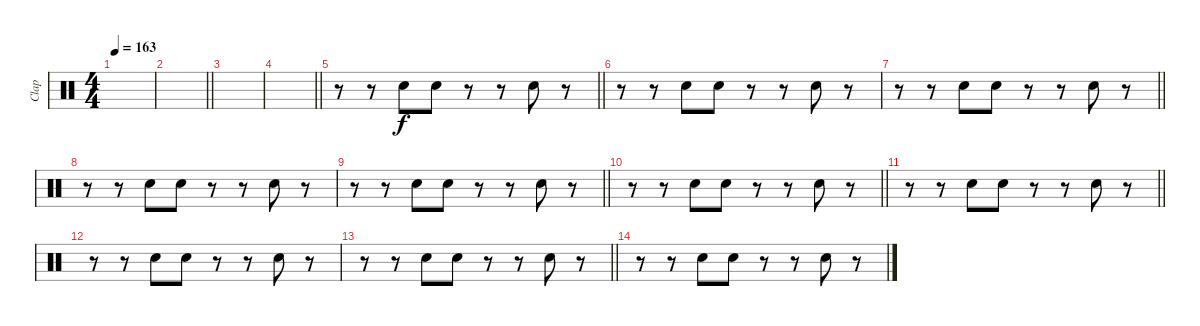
\track ("Clap" "Clap") {instrument percussion}
\staff {score}
\articulation defaults
\ts (4 4)
\tempo 163
\clef neutral
\ks c
|
\barLineRight lightlight
|
\section ("" "")
|
\barLineRight lightlight
|
\barLineRight lightlight
r.8 r.8 "Hand Clap (hit)".8 "Hand Clap (hit)".8 r.8 r.8 "Hand Clap (hit)".8 r.8 |
r.8 r.8 "Hand Clap (hit)".8 "Hand Clap (hit)".8 r.8 r.8 "Hand Clap (hit)".8 r.8 |
\barLineRight lightlight
r.8 r.8 "Hand Clap (hit)".8 "Hand Clap (hit)".8 r.8 r.8 "Hand Clap (hit)".8 r.8 |
r.8 r.8 "Hand Clap (hit)".8 "Hand Clap (hit)".8 r.8 r.8 "Hand Clap (hit)".8 r.8 |
\barLineRight lightlight
r.8 r.8 "Hand Clap (hit)".8 "Hand Clap (hit)".8 r.8 r.8 "Hand Clap (hit)".8 r.8 |
\barLineRight lightlight
r.8 r.8 "Hand Clap (hit)".8 "Hand Clap (hit)".8 r.8 r.8 "Hand Clap (hit)".8 r.8 |
\barLineRight lightlight
r.8 r.8 "Hand Clap (hit)".8 "Hand Clap (hit)".8 r.8 r.8 "Hand Clap (hit)".8 r.8 |
r.8 r.8 "Hand Clap (hit)".8 "Hand Clap (hit)".8 r.8 r.8 "Hand Clap (hit)".8 r.8 |
\barLineRight lightlight
r.8 r.8 "Hand Clap (hit)".8 "Hand Clap (hit)".8 r.8 r.8 "Hand Clap (hit)".8 r.8 |
r.8 r.8 "Hand Clap (hit)".8 "Hand Clap (hit)".8 r.8 r.8 "Hand Clap (hit)".8 r.8
